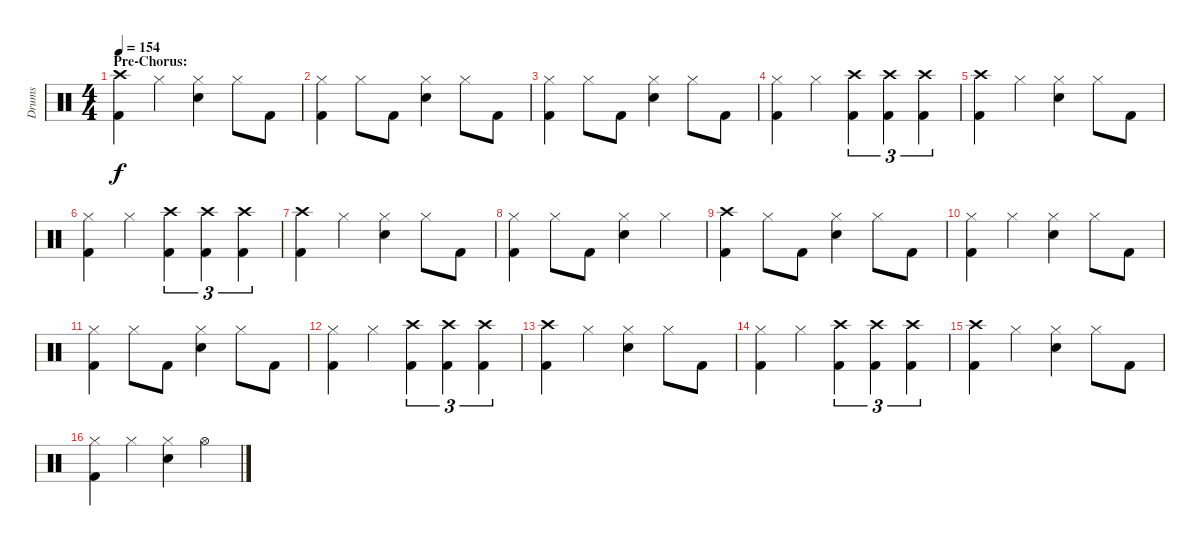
\track ("Drums" "Drums") {instrument percussion}
\staff {score}
\articulation defaults
\ts (4 4)
\section ("" "Pre-Chorus:")
\tempo 154
\clef neutral
\ks c
("Crash high (hit)" "Kick (hit) 2").4{dy f} "Hi-Hat (closed)".4 ("Hi-Hat (closed)" "Snare (hit) 2").4 "Hi-Hat (closed)".8 "Kick (hit) 2".8 |
("Hi-Hat (closed)" "Kick (hit) 2").4 "Hi-Hat (closed)".8 "Kick (hit) 2".8 ("Hi-Hat (closed)" "Snare (hit) 2").4 "Hi-Hat (closed)".8 "Kick (hit) 2".8 |
("Hi-Hat (closed)" "Kick (hit) 2").4 "Hi-Hat (closed)".8 "Kick (hit) 2".8 ("Hi-Hat (closed)" "Snare (hit) 2").4 "Hi-Hat (closed)".8 "Kick (hit) 2".8 |
("Hi-Hat (closed)" "Kick (hit) 2").4 "Hi-Hat (closed)".4 ("Crash high (hit)" "Kick (hit) 2").4{tu (3 2)} ("Crash high (hit)" "Kick (hit) 2").4{tu (3 2)} ("Crash high (hit)" "Kick (hit) 2").4{tu (3 2)} |
("Crash high (hit)" "Kick (hit) 2").4 "Hi-Hat (closed)".4 ("Hi-Hat (closed)" "Snare (hit) 2").4 "Hi-Hat (closed)".8 "Kick (hit) 2".8 |
("Hi-Hat (closed)" "Kick (hit) 2").4 "Hi-Hat (closed)".4 ("Crash high (hit)" "Kick (hit) 2").4{tu (3 2)} ("Crash high (hit)" "Kick (hit) 2").4{tu (3 2)} ("Crash high (hit)" "Kick (hit) 2").4{tu (3 2)} |
("Crash high (hit)" "Kick (hit) 2").4 "Hi-Hat (closed)".4 ("Hi-Hat (closed)" "Snare (hit) 2").4 "Hi-Hat (closed)".8 "Kick (hit) 2".8 |
("Hi-Hat (closed)" "Kick (hit) 2").4 "Hi-Hat (closed)".8 "Kick (hit) 2".8 ("Hi-Hat (closed)" "Snare (hit) 2").4 "Hi-Hat (closed)".4 |
("Crash high (hit)" "Kick (hit) 2").4 "Hi-Hat (closed)".8 "Kick (hit) 2".8 ("Hi-Hat (closed)" "Snare (hit) 2").4 "Hi-Hat (closed)".8 "Kick (hit) 2".8 |
("Hi-Hat (closed)" "Kick (hit) 2").4 "Hi-Hat (closed)".4 ("Hi-Hat (closed)" "Snare (hit) 2").4 "Hi-Hat (closed)".8 "Kick (hit) 2".8 |
("Hi-Hat (closed)" "Kick (hit) 2").4 "Hi-Hat (closed)".8 "Kick (hit) 2".8 ("Hi-Hat (closed)" "Snare (hit) 2").4 "Hi-Hat (closed)".8 "Kick (hit) 2".8 |
("Hi-Hat (closed)" "Kick (hit) 2").4 "Hi-Hat (closed)".4 ("Crash high (hit)" "Kick (hit) 2").4{tu (3 2)} ("Crash high (hit)" "Kick (hit) 2").4{tu (3 2)} ("Crash high (hit)" "Kick (hit) 2").4{tu (3 2)} |
("Crash high (hit)" "Kick (hit) 2").4 "Hi-Hat (closed)".4 ("Hi-Hat (closed)" "Snare (hit) 2").4 "Hi-Hat (closed)".8 "Kick (hit) 2".8 |
("Hi-Hat (closed)" "Kick (hit) 2").4 "Hi-Hat (closed)".4 ("Crash high (hit)" "Kick (hit) 2").4{tu (3 2)} ("Crash high (hit)" "Kick (hit) 2").4{tu (3 2)} ("Crash high (hit)" "Kick (hit) 2").4{tu (3 2)} |
("Crash high (hit)" "Kick (hit) 2").4 "Hi-Hat (closed)".4 ("Hi-Hat (closed)" "Snare (hit) 2").4 "Hi-Hat (closed)".8 "Kick (hit) 2".8 |
("Hi-Hat (closed)" "Kick (hit) 2").4 "Hi-Hat (closed)".4 ("Hi-Hat (closed)" "Snare (hit) 2").4 "Hi-Hat (open)".4
